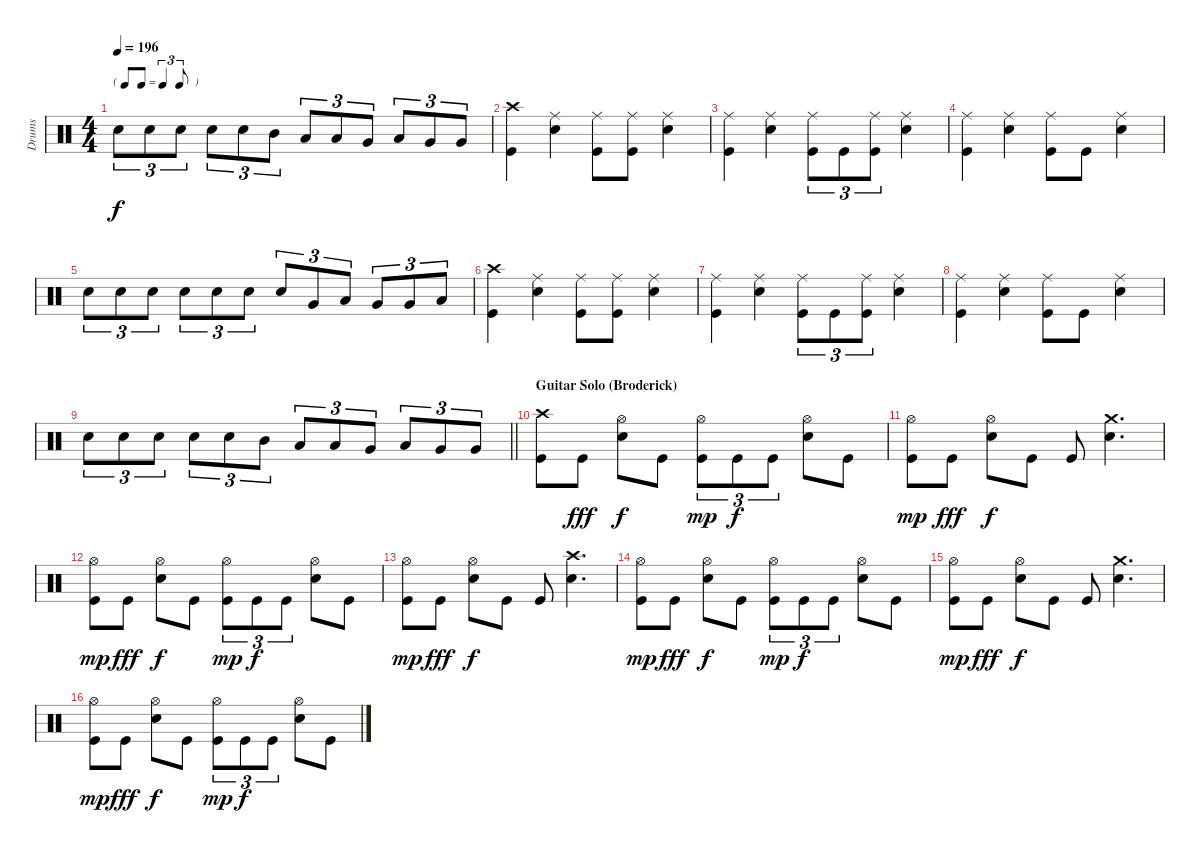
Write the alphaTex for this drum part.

\track ("Drums" "Drums") {instrument percussion}
\staff {score}
\articulation defaults
\ts (4 4)
\tf triplet8th
\tempo 196
\clef neutral
\ks c "Snare (hit) 2".8{tu (3 2) dy f} "Snare (hit) 2".8{tu (3 2)} "Snare (hit) 2".8{tu (3 2)} "Snare (hit) 2".8{tu (3 2)} "Snare (hit) 2".8{tu (3 2)} "Mid Tom (hit)".8{tu (3 2)} "Low Tom (hit)".8{tu (3 2)} "Low Tom (hit)".8{tu (3 2)} "Very Low Tom (hit)".8{tu (3 2)} "Low Tom (hit)".8{tu (3 2)} "Very Low Tom (hit)".8{tu (3 2)} "Very Low Tom (hit)".8{tu (3 2)}
|
("Crash high (hit)" "Kick (hit)").4 ("Ride (middle)" "Snare (hit) 2").4 ("Ride (middle)" "Kick (hit)").8 ("Ride (middle)" "Kick (hit)").8 ("Ride (middle)" "Snare (hit) 2").4 |
("Ride (middle)" "Kick (hit)").4 ("Ride (middle)" "Snare (hit) 2").4 ("Ride (middle)" "Kick (hit)").8{tu (3 2)} "Kick (hit)".8{tu (3 2)} ("Ride (middle)" "Kick (hit)").8{tu (3 2)} ("Ride (middle)" "Snare (hit) 2").4 |
("Ride (middle)" "Kick (hit)").4 ("Ride (middle)" "Snare (hit) 2").4 ("Ride (middle)" "Kick (hit)").8 "Kick (hit)".8 ("Ride (middle)" "Snare (hit) 2").4 |
"Snare (hit) 2".8{tu (3 2)} "Snare (hit) 2".8{tu (3 2)} "Snare (hit) 2".8{tu (3 2)} "Snare (hit) 2".8{tu (3 2)} "Snare (hit) 2".8{tu (3 2)} "Snare (hit) 2".8{tu (3 2)} "Snare (hit) 2".8{tu (3 2)} "Very Low Tom (hit)".8{tu (3 2)} "Low Tom (hit)".8{tu (3 2)} "Very Low Tom (hit)".8{tu (3 2)} "Very Low Tom (hit)".8{tu (3 2)} "Low Floor Tom (hit)".8{tu (3 2)} |
("Crash high (hit)" "Kick (hit)").4 ("Ride (middle)" "Snare (hit) 2").4 ("Ride (middle)" "Kick (hit)").8 ("Ride (middle)" "Kick (hit)").8 ("Ride (middle)" "Snare (hit) 2").4 |
("Ride (middle)" "Kick (hit)").4 ("Ride (middle)" "Snare (hit) 2").4 ("Ride (middle)" "Kick (hit)").8{tu (3 2)} "Kick (hit)".8{tu (3 2)} ("Ride (middle)" "Kick (hit)").8{tu (3 2)} ("Ride (middle)" "Snare (hit) 2").4 |
("Ride (middle)" "Kick (hit)").4 ("Ride (middle)" "Snare (hit) 2").4 ("Ride (middle)" "Kick (hit)").8 "Kick (hit)".8 ("Ride (middle)" "Snare (hit) 2").4 |
\barLineRight lightlight "Snare (hit) 2".8{tu (3 2)} "Snare (hit) 2".8{tu (3 2)} "Snare (hit) 2".8{tu (3 2)} "Snare (hit) 2".8{tu (3 2)} "Snare (hit) 2".8{tu (3 2)} "Mid Tom (hit)".8{tu (3 2)} "Low Tom (hit)".8{tu (3 2)} "Low Tom (hit)".8{tu (3 2)} "Very Low Tom (hit)".8{tu (3 2)} "Low Tom (hit)".8{tu (3 2)} "Very Low Tom (hit)".8{tu (3 2)} "Very Low Tom (hit)".8{tu (3 2)}
|
\section ("" "Guitar Solo (Broderick)")
("Crash high (hit)" "Kick (hit)").8 "Kick (hit)".8{dy fff} ("Hi-Hat (open)" "Snare (hit) 2").8{dy f} "Kick (hit)".8 ("Hi-Hat (open)" "Kick (hit)").8{tu (3 2) dy mp} "Kick (hit)".8{tu (3 2) dy f} "Kick (hit)".8{tu (3 2)} ("Hi-Hat (open)" "Snare (hit) 2").8 "Kick (hit)".8 |
("Hi-Hat (open)" "Kick (hit)").8{dy mp} "Kick (hit)".8{dy fff} ("Hi-Hat (open)" "Snare (hit) 2").8{dy f} "Kick (hit)".8 "Kick (hit)".8 ("Crash medium (hit)" "Snare (hit) 2").4{d} |
("Hi-Hat (open)" "Kick (hit)").8{dy mp} "Kick (hit)".8{dy fff} ("Hi-Hat (open)" "Snare (hit) 2").8{dy f} "Kick (hit)".8 ("Hi-Hat (open)" "Kick (hit)").8{tu (3 2) dy mp} "Kick (hit)".8{tu (3 2) dy f} "Kick (hit)".8{tu (3 2)} ("Hi-Hat (open)" "Snare (hit) 2").8 "Kick (hit)".8 |
("Hi-Hat (open)" "Kick (hit)").8{dy mp} "Kick (hit)".8{dy fff} ("Hi-Hat (open)" "Snare (hit) 2").8{dy f} "Kick (hit)".8 "Kick (hit)".8 ("Crash high (hit)" "Snare (hit) 2").4{d} |
("Hi-Hat (open)" "Kick (hit)").8{dy mp} "Kick (hit)".8{dy fff} ("Hi-Hat (open)" "Snare (hit) 2").8{dy f} "Kick (hit)".8 ("Hi-Hat (open)" "Kick (hit)").8{tu (3 2) dy mp} "Kick (hit)".8{tu (3 2) dy f} "Kick (hit)".8{tu (3 2)} ("Hi-Hat (open)" "Snare (hit) 2").8 "Kick (hit)".8 |
("Hi-Hat (open)" "Kick (hit)").8{dy mp} "Kick (hit)".8{dy fff} ("Hi-Hat (open)" "Snare (hit) 2").8{dy f} "Kick (hit)".8 "Kick (hit)".8 ("Crash medium (hit)" "Snare (hit) 2").4{d} |
("Hi-Hat (open)" "Kick (hit)").8{dy mp} "Kick (hit)".8{dy fff} ("Hi-Hat (open)" "Snare (hit) 2").8{dy f} "Kick (hit)".8 ("Hi-Hat (open)" "Kick (hit)").8{tu (3 2) dy mp} "Kick (hit)".8{tu (3 2) dy f} "Kick (hit)".8{tu (3 2)} ("Hi-Hat (open)" "Snare (hit) 2").8 "Kick (hit)".8
